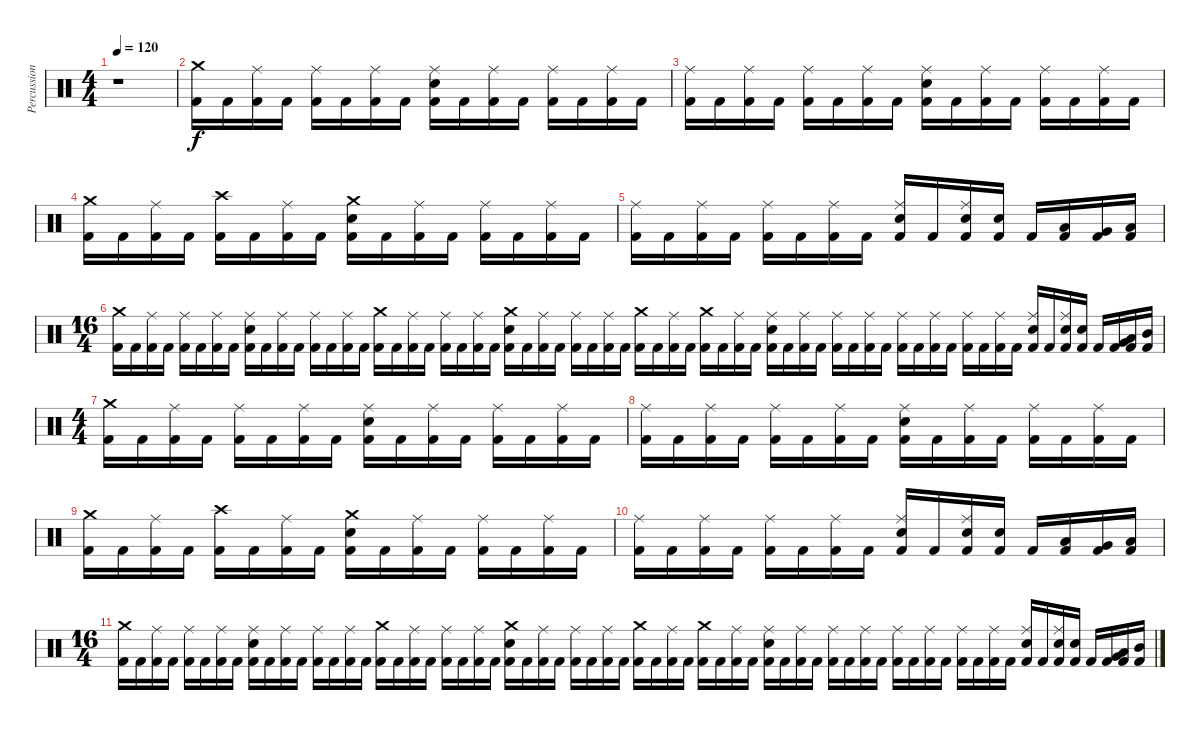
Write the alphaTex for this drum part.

\track ("Percussion" "Percussion") {instrument percussion}
\staff {score}
\articulation defaults
\ts (4 4)
\tempo 120
\clef neutral
\ks c
r.1{dy f} |
("Kick (hit) 2" "Crash medium (hit)").16{volume 0} "Kick (hit) 2".16 ("Kick (hit) 2" "Ride (middle)").16{volume 12} "Kick (hit) 2".16 ("Kick (hit) 2" "Ride (middle)").16 "Kick (hit) 2".16 ("Kick (hit) 2" "Ride (middle)").16 "Kick (hit) 2".16 ("Kick (hit) 2" "Electric Snare (hit)" "Ride (middle)").16 "Kick (hit) 2".16 ("Kick (hit) 2" "Ride (middle)").16 "Kick (hit) 2".16 ("Kick (hit) 2" "Ride (middle)").16 "Kick (hit) 2".16 ("Kick (hit) 2" "Ride (middle)").16 "Kick (hit) 2".16 |
("Kick (hit) 2" "Ride (middle)").16 "Kick (hit) 2".16 ("Kick (hit) 2" "Ride (middle)").16 "Kick (hit) 2".16 ("Kick (hit) 2" "Ride (middle)").16 "Kick (hit) 2".16 ("Kick (hit) 2" "Ride (middle)").16 "Kick (hit) 2".16 ("Kick (hit) 2" "Electric Snare (hit)" "Ride (middle)").16 "Kick (hit) 2".16 ("Kick (hit) 2" "Ride (middle)").16 "Kick (hit) 2".16 ("Kick (hit) 2" "Ride (middle)").16 "Kick (hit) 2".16 ("Kick (hit) 2" "Ride (middle)").16 "Kick (hit) 2".16 |
("Kick (hit) 2" "Crash medium (hit)").16 "Kick (hit) 2".16 ("Kick (hit) 2" "Ride (middle)").16 "Kick (hit) 2".16 ("Kick (hit) 2" "Crash high (hit)").16 "Kick (hit) 2".16 ("Kick (hit) 2" "Ride (middle)").16 "Kick (hit) 2".16 ("Kick (hit) 2" "Electric Snare (hit)" "Crash medium (hit)").16 "Kick (hit) 2".16 ("Kick (hit) 2" "Ride (middle)").16 "Kick (hit) 2".16 ("Kick (hit) 2" "Ride (middle)").16 "Kick (hit) 2".16 ("Kick (hit) 2" "Ride (middle)").16 "Kick (hit) 2".16 |
("Kick (hit) 2" "Ride (middle)").16 "Kick (hit) 2".16 ("Kick (hit) 2" "Ride (middle)").16 "Kick (hit) 2".16 ("Kick (hit) 2" "Ride (middle)").16 "Kick (hit) 2".16 ("Kick (hit) 2" "Ride (middle)").16 "Kick (hit) 2".16 ("Kick (hit) 2" "Electric Snare (hit)" "Ride (middle)").16 "Kick (hit) 2".16 ("Kick (hit) 2" "Electric Snare (hit)" "Ride (middle)").16 ("Kick (hit) 2" "Electric Snare (hit)").16 "Kick (hit) 2".16 ("Kick (hit) 2" "Low Floor Tom (hit)").16 ("Kick (hit) 2" "Very Low Tom (hit)").16 ("Kick (hit) 2" "Low Tom (hit)").16 |
\ts (16 4)
("Kick (hit) 2" "Crash medium (hit)").16 "Kick (hit) 2".16 ("Kick (hit) 2" "Ride (middle)").16 "Kick (hit) 2".16 ("Kick (hit) 2" "Ride (middle)").16 "Kick (hit) 2".16 ("Kick (hit) 2" "Ride (middle)").16 "Kick (hit) 2".16 ("Kick (hit) 2" "Electric Snare (hit)" "Ride (middle)").16 "Kick (hit) 2".16 ("Kick (hit) 2" "Ride (middle)").16 "Kick (hit) 2".16 ("Kick (hit) 2" "Ride (middle)").16 "Kick (hit) 2".16 ("Kick (hit) 2" "Ride (middle)").16 "Kick (hit) 2".16 ("Kick (hit) 2" "Crash medium (hit)").16 "Kick (hit) 2".16 ("Kick (hit) 2" "Ride (middle)").16 "Kick (hit) 2".16 ("Kick (hit) 2" "Ride (middle)").16 "Kick (hit) 2".16 ("Kick (hit) 2" "Ride (middle)").16 "Kick (hit) 2".16 ("Kick (hit) 2" "Electric Snare (hit)" "Crash medium (hit)").16 "Kick (hit) 2".16 ("Kick (hit) 2" "Ride (middle)").16 "Kick (hit) 2".16 ("Kick (hit) 2" "Ride (middle)").16 "Kick (hit) 2".16 ("Kick (hit) 2" "Ride (middle)").16 "Kick (hit) 2".16 ("Kick (hit) 2" "Crash medium (hit)").16 "Kick (hit) 2".16 ("Kick (hit) 2" "Ride (middle)").16 "Kick (hit) 2".16 ("Kick (hit) 2" "Crash medium (hit)").16 "Kick (hit) 2".16 ("Kick (hit) 2" "Ride (middle)").16 "Kick (hit) 2".16 ("Kick (hit) 2" "Electric Snare (hit)" "Ride (middle)").16 "Kick (hit) 2".16 ("Kick (hit) 2" "Ride (middle)").16 "Kick (hit) 2".16 ("Kick (hit) 2" "Ride (middle)").16 "Kick (hit) 2".16 ("Kick (hit) 2" "Ride (middle)").16 "Kick (hit) 2".16 ("Kick (hit) 2" "Ride (middle)").16 "Kick (hit) 2".16 ("Kick (hit) 2" "Ride (middle)").16 "Kick (hit) 2".16 ("Kick (hit) 2" "Ride (middle)").16 "Kick (hit) 2".16 ("Kick (hit) 2" "Ride (middle)").16 "Kick (hit) 2".16 ("Kick (hit) 2" "Electric Snare (hit)" "Ride (middle)").16 "Kick (hit) 2".16 ("Kick (hit) 2" "Electric Snare (hit)" "Ride (middle)").16 ("Kick (hit) 2" "Electric Snare (hit)").16 "Kick (hit) 2".16 ("Kick (hit) 2" "Very Low Tom (hit)").16 ("Kick (hit) 2" "Low Tom (hit)").16 ("Kick (hit) 2" "Mid Tom (hit)").16 |
\ts (4 4)
("Kick (hit) 2" "Crash medium (hit)").16 "Kick (hit) 2".16 ("Kick (hit) 2" "Ride (middle)").16 "Kick (hit) 2".16 ("Kick (hit) 2" "Ride (middle)").16 "Kick (hit) 2".16 ("Kick (hit) 2" "Ride (middle)").16 "Kick (hit) 2".16 ("Kick (hit) 2" "Electric Snare (hit)" "Ride (middle)").16 "Kick (hit) 2".16 ("Kick (hit) 2" "Ride (middle)").16 "Kick (hit) 2".16 ("Kick (hit) 2" "Ride (middle)").16 "Kick (hit) 2".16 ("Kick (hit) 2" "Ride (middle)").16 "Kick (hit) 2".16 |
("Kick (hit) 2" "Ride (middle)").16 "Kick (hit) 2".16 ("Kick (hit) 2" "Ride (middle)").16 "Kick (hit) 2".16 ("Kick (hit) 2" "Ride (middle)").16 "Kick (hit) 2".16 ("Kick (hit) 2" "Ride (middle)").16 "Kick (hit) 2".16 ("Kick (hit) 2" "Electric Snare (hit)" "Ride (middle)").16 "Kick (hit) 2".16 ("Kick (hit) 2" "Ride (middle)").16 "Kick (hit) 2".16 ("Kick (hit) 2" "Ride (middle)").16 "Kick (hit) 2".16 ("Kick (hit) 2" "Ride (middle)").16 "Kick (hit) 2".16 |
("Kick (hit) 2" "Crash medium (hit)").16 "Kick (hit) 2".16 ("Kick (hit) 2" "Ride (middle)").16 "Kick (hit) 2".16 ("Kick (hit) 2" "Crash high (hit)").16 "Kick (hit) 2".16 ("Kick (hit) 2" "Ride (middle)").16 "Kick (hit) 2".16 ("Kick (hit) 2" "Electric Snare (hit)" "Crash medium (hit)").16 "Kick (hit) 2".16 ("Kick (hit) 2" "Ride (middle)").16 "Kick (hit) 2".16 ("Kick (hit) 2" "Ride (middle)").16 "Kick (hit) 2".16 ("Kick (hit) 2" "Ride (middle)").16 "Kick (hit) 2".16 |
("Kick (hit) 2" "Ride (middle)").16 "Kick (hit) 2".16 ("Kick (hit) 2" "Ride (middle)").16 "Kick (hit) 2".16 ("Kick (hit) 2" "Ride (middle)").16 "Kick (hit) 2".16 ("Kick (hit) 2" "Ride (middle)").16 "Kick (hit) 2".16 ("Kick (hit) 2" "Electric Snare (hit)" "Ride (middle)").16 "Kick (hit) 2".16 ("Kick (hit) 2" "Electric Snare (hit)" "Ride (middle)").16 ("Kick (hit) 2" "Electric Snare (hit)").16 "Kick (hit) 2".16 ("Kick (hit) 2" "Low Floor Tom (hit)").16 ("Kick (hit) 2" "Very Low Tom (hit)").16 ("Kick (hit) 2" "Low Tom (hit)").16 |
\ts (16 4)
("Kick (hit) 2" "Crash medium (hit)").16 "Kick (hit) 2".16 ("Kick (hit) 2" "Ride (middle)").16 "Kick (hit) 2".16 ("Kick (hit) 2" "Ride (middle)").16 "Kick (hit) 2".16 ("Kick (hit) 2" "Ride (middle)").16 "Kick (hit) 2".16 ("Kick (hit) 2" "Electric Snare (hit)" "Ride (middle)").16 "Kick (hit) 2".16 ("Kick (hit) 2" "Ride (middle)").16 "Kick (hit) 2".16 ("Kick (hit) 2" "Ride (middle)").16 "Kick (hit) 2".16 ("Kick (hit) 2" "Ride (middle)").16 "Kick (hit) 2".16 ("Kick (hit) 2" "Crash medium (hit)").16 "Kick (hit) 2".16 ("Kick (hit) 2" "Ride (middle)").16 "Kick (hit) 2".16 ("Kick (hit) 2" "Ride (middle)").16 "Kick (hit) 2".16 ("Kick (hit) 2" "Ride (middle)").16 "Kick (hit) 2".16 ("Kick (hit) 2" "Electric Snare (hit)" "Crash medium (hit)").16 "Kick (hit) 2".16 ("Kick (hit) 2" "Ride (middle)").16 "Kick (hit) 2".16 ("Kick (hit) 2" "Ride (middle)").16 "Kick (hit) 2".16 ("Kick (hit) 2" "Ride (middle)").16 "Kick (hit) 2".16 ("Kick (hit) 2" "Crash medium (hit)").16{volume 0} "Kick (hit) 2".16 ("Kick (hit) 2" "Ride (middle)").16 "Kick (hit) 2".16 ("Kick (hit) 2" "Crash medium (hit)").16 "Kick (hit) 2".16 ("Kick (hit) 2" "Ride (middle)").16 "Kick (hit) 2".16 ("Kick (hit) 2" "Electric Snare (hit)" "Ride (middle)").16 "Kick (hit) 2".16 ("Kick (hit) 2" "Ride (middle)").16 "Kick (hit) 2".16 ("Kick (hit) 2" "Ride (middle)").16 "Kick (hit) 2".16 ("Kick (hit) 2" "Ride (middle)").16 "Kick (hit) 2".16 ("Kick (hit) 2" "Ride (middle)").16 "Kick (hit) 2".16 ("Kick (hit) 2" "Ride (middle)").16 "Kick (hit) 2".16 ("Kick (hit) 2" "Ride (middle)").16 "Kick (hit) 2".16 ("Kick (hit) 2" "Ride (middle)").16 "Kick (hit) 2".16 ("Kick (hit) 2" "Electric Snare (hit)" "Ride (middle)").16 "Kick (hit) 2".16 ("Kick (hit) 2" "Electric Snare (hit)" "Ride (middle)").16 ("Kick (hit) 2" "Electric Snare (hit)").16 "Kick (hit) 2".16 ("Kick (hit) 2" "Very Low Tom (hit)").16 ("Kick (hit) 2" "Low Tom (hit)").16 ("Kick (hit) 2" "Mid Tom (hit)").16
